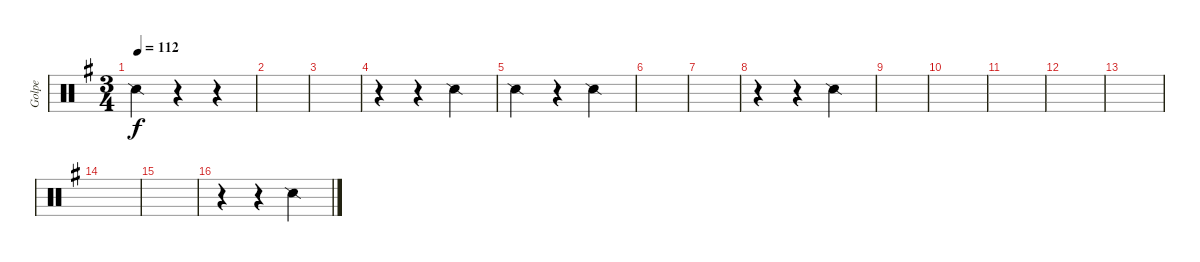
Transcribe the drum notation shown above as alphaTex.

\track ("Golpe" "Golpe") {instrument percussion}
\staff {score}
\articulation defaults
\ts (3 4)
\tempo 112
\clef neutral
\ks g "Snare (side stick) 2".4{dy f}
r.4 r.4 |
|
|
r.4 r.4 "Snare (side stick) 2".4 |
"Snare (side stick) 2".4 r.4 "Snare (side stick) 2".4 |
|
|
r.4 r.4 "Snare (side stick) 2".4 |
|
|
|
|
|
|
|
r.4 r.4 "Snare (side stick) 2".4
